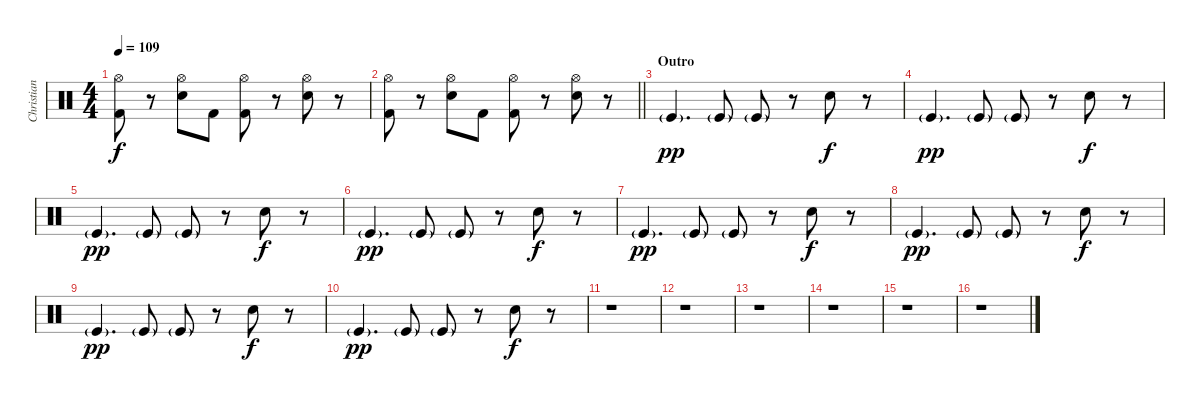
\track ("Christian Eigner - Drums" "Christian ") {instrument percussion}
\staff {score}
\articulation defaults
\ts (4 4)
\tempo 109
\clef neutral
\ks c
("Hi-Hat (open)" "Kick (hit) 2").8{dy f} r.8 ("Hi-Hat (open)" "Snare (hit) 2").8 "Kick (hit) 2".8 ("Hi-Hat (open)" "Kick (hit) 2").8 r.8 ("Hi-Hat (open)" "Snare (hit) 2").8 r.8 |
\barLineRight lightlight
("Hi-Hat (open)" "Kick (hit) 2").8 r.8 ("Hi-Hat (open)" "Snare (hit) 2").8 "Kick (hit) 2".8 ("Hi-Hat (open)" "Kick (hit) 2").8 r.8 ("Hi-Hat (open)" "Snare (hit) 2").8 r.8 |
\section ("" "Outro")
"Kick (hit)"{g}.4{d dy pp} "Kick (hit)"{g}.8 "Kick (hit)"{g}.8 r.8 "Hand Clap (hit)".8{dy f} r.8 |
"Kick (hit)"{g}.4{d dy pp} "Kick (hit)"{g}.8 "Kick (hit)"{g}.8 r.8 "Hand Clap (hit)".8{dy f} r.8 |
"Kick (hit)"{g}.4{d dy pp} "Kick (hit)"{g}.8 "Kick (hit)"{g}.8 r.8 "Hand Clap (hit)".8{dy f} r.8 |
"Kick (hit)"{g}.4{d dy pp} "Kick (hit)"{g}.8 "Kick (hit)"{g}.8 r.8 "Hand Clap (hit)".8{dy f} r.8 |
"Kick (hit)"{g}.4{d dy pp} "Kick (hit)"{g}.8 "Kick (hit)"{g}.8 r.8 "Hand Clap (hit)".8{dy f} r.8 |
"Kick (hit)"{g}.4{d dy pp} "Kick (hit)"{g}.8 "Kick (hit)"{g}.8 r.8 "Hand Clap (hit)".8{dy f} r.8 |
"Kick (hit)"{g}.4{d dy pp} "Kick (hit)"{g}.8 "Kick (hit)"{g}.8 r.8 "Hand Clap (hit)".8{dy f} r.8 |
"Kick (hit)"{g}.4{d dy pp} "Kick (hit)"{g}.8 "Kick (hit)"{g}.8 r.8 "Hand Clap (hit)".8{dy f} r.8 |
r.1 |
r.1 |
r.1 |
r.1 |
r.1 |
r.1
